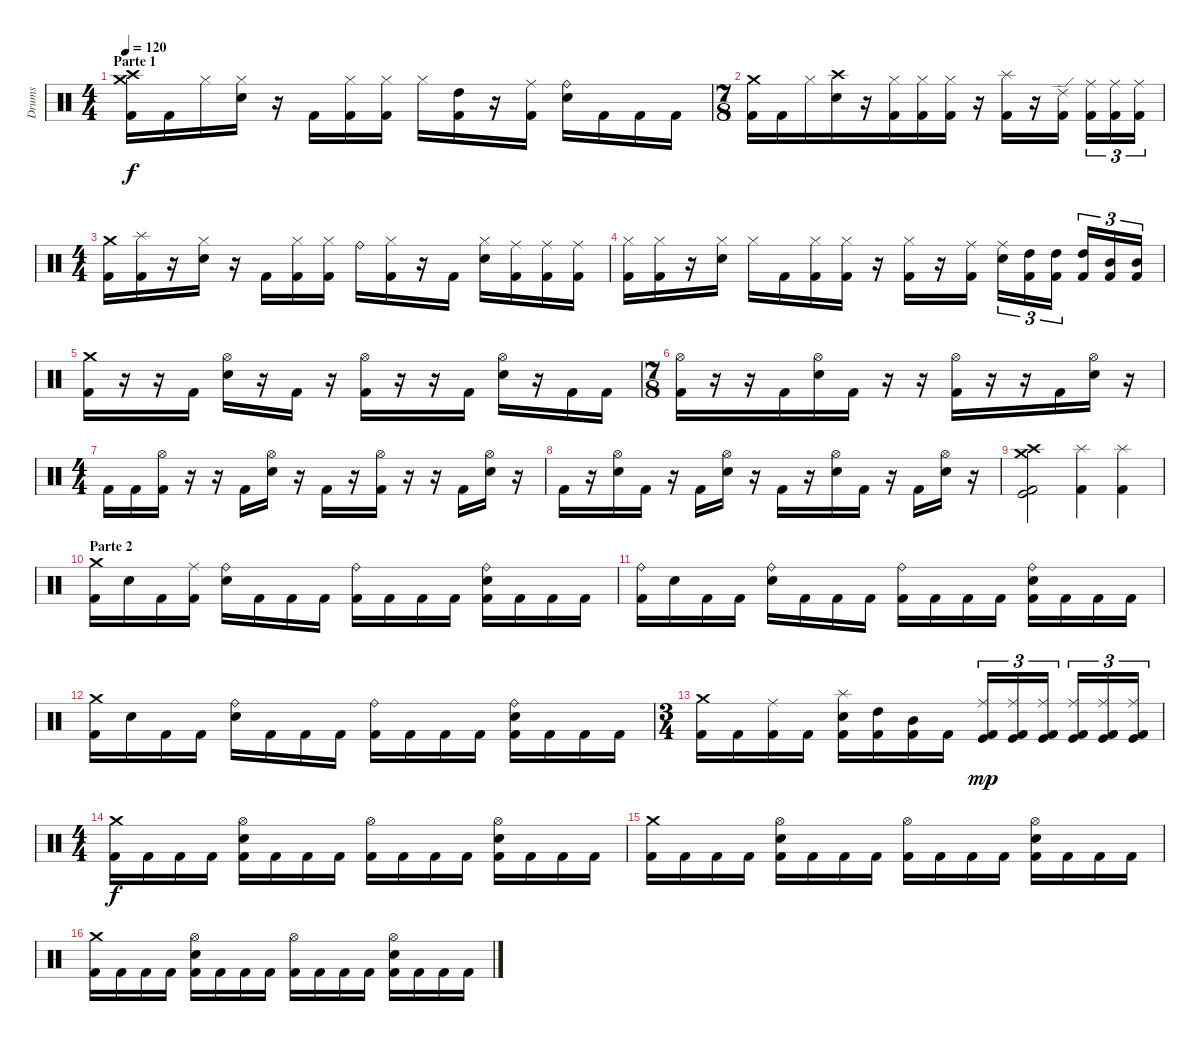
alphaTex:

\track ("Drums" "Drums") {instrument percussion}
\staff {score}
\articulation defaults
\ts (4 4)
\section ("" "Parte 1")
\tempo 120
\clef neutral
\ks c
("Crash medium (hit)" "Crash high (hit)" "Kick (hit) 2").16{dy f} "Kick (hit) 2".16 "Hi-Hat (closed)".16 ("Hi-Hat (closed)" "Electric Snare (hit)").16 r.16 "Kick (hit) 2".16 ("Hi-Hat (closed)" "Kick (hit) 2").16 ("Hi-Hat (closed)" "Kick (hit) 2").16 "Hi-Hat (closed)".16 ("High Tom (hit)" "Kick (hit) 2").16 r.16 ("Ride (middle)" "Kick (hit) 2").16 ("Ride (bell)" "Electric Snare (hit)").16 "Kick (hit) 2".16 "Kick (hit) 2".16 "Kick (hit) 2".16 |
\ts (7 8)
("Crash medium (hit)" "Kick (hit) 2").16 "Kick (hit) 2".16 "Hi-Hat (closed)".16 ("Crash high (hit)" "Electric Snare (hit)").16 r.16 ("Hi-Hat (closed)" "Kick (hit) 2").16 ("Hi-Hat (closed)" "Kick (hit) 2").16 ("Hi-Hat (closed)" "Kick (hit) 2").16 r.16 ("Splash (hit)" "Kick (hit) 2").16 r.16 ("Ride (edge) 2" "Kick (hit) 2").16 ("Ride (middle)" "Kick (hit) 2").16{tu (3 2)} ("Ride (middle)" "Kick (hit) 2").16{tu (3 2)} ("Ride (middle)" "Kick (hit) 2").16{tu (3 2)} |
\ts (4 4)
("Crash medium (hit)" "Kick (hit) 2").16 ("Splash (hit)" "Kick (hit) 2").16 r.16 ("Hi-Hat (closed)" "Electric Snare (hit)").16 r.16 "Kick (hit) 2".16 ("Hi-Hat (closed)" "Kick (hit) 2").16 ("Hi-Hat (closed)" "Kick (hit) 2").16 "Ride (bell)".16 ("Hi-Hat (closed)" "Kick (hit) 2").16 r.16 "Kick (hit) 2".16 ("Hi-Hat (closed)" "Electric Snare (hit)").16 ("Ride (middle)" "Kick (hit) 2").16 ("Ride (middle)" "Kick (hit) 2").16 ("Ride (middle)" "Kick (hit) 2").16 |
("Hi-Hat (closed)" "Kick (hit) 2").16 ("Hi-Hat (closed)" "Kick (hit) 2").16 r.16 ("Hi-Hat (closed)" "Electric Snare (hit)").16 "Hi-Hat (closed)".16 "Kick (hit) 2".16 ("Hi-Hat (closed)" "Kick (hit) 2").16 ("Hi-Hat (closed)" "Kick (hit) 2").16 r.16 ("Hi-Hat (closed)" "Kick (hit) 2").16 r.16 ("Ride (middle)" "Kick (hit) 2").16 ("Ride (middle)" "Electric Snare (hit)").16{tu (3 2)} ("High Tom (hit)" "Kick (hit) 2").16{tu (3 2)} ("High Tom (hit)" "Kick (hit) 2").16{tu (3 2)} ("High Tom (hit)" "Kick (hit) 2").16{tu (3 2)} ("Mid Tom (hit)" "Kick (hit) 2").16{tu (3 2)} ("Mid Tom (hit)" "Kick (hit) 2").16{tu (3 2)} |
("Crash medium (hit)" "Kick (hit) 2").16 r.16 r.16 "Kick (hit) 2".16 ("Hi-Hat (open)" "Electric Snare (hit)").16 r.16 "Kick (hit) 2".16 r.16 ("Hi-Hat (open)" "Kick (hit) 2").16 r.16 r.16 "Kick (hit) 2".16 ("Hi-Hat (open)" "Electric Snare (hit)").16 r.16 "Kick (hit) 2".16 "Kick (hit) 2".16 |
\ts (7 8)
("Hi-Hat (open)" "Kick (hit) 2").16 r.16 r.16 "Kick (hit) 2".16 ("Hi-Hat (open)" "Electric Snare (hit)").16 "Kick (hit) 2".16 r.16 r.16 ("Hi-Hat (open)" "Kick (hit) 2").16 r.16 r.16 "Kick (hit) 2".16 ("Hi-Hat (open)" "Electric Snare (hit)").16 r.16 |
\ts (4 4)
"Kick (hit) 2".16 "Kick (hit) 2".16 ("Hi-Hat (open)" "Kick (hit) 2").16 r.16 r.16 "Kick (hit) 2".16 ("Hi-Hat (open)" "Electric Snare (hit)").16 r.16 "Kick (hit) 2".16 r.16 ("Hi-Hat (open)" "Kick (hit) 2").16 r.16 r.16 "Kick (hit) 2".16 ("Hi-Hat (open)" "Electric Snare (hit)").16 r.16 |
"Kick (hit) 2".16 r.16 ("Hi-Hat (open)" "Electric Snare (hit)").16 "Kick (hit) 2".16 r.16 "Kick (hit) 2".16 ("Hi-Hat (open)" "Electric Snare (hit)").16 r.16 "Kick (hit) 2".16 r.16 ("Hi-Hat (open)" "Electric Snare (hit)").16 "Kick (hit) 2".16 r.16 "Kick (hit) 2".16 ("Hi-Hat (open)" "Electric Snare (hit)").16 r.16 |
("Crash medium (hit)" "Crash high (hit)" "Kick (hit) 2" "Kick (hit)").2 ("Splash (hit)" "Kick (hit) 2").4 ("Splash (hit)" "Kick (hit) 2").4 |
\section ("" "Parte 2")
("Crash medium (hit)" "Kick (hit) 2").16 "Electric Snare (hit)".16 "Kick (hit) 2".16 ("Ride (middle)" "Kick (hit) 2").16 ("Ride (bell)" "Electric Snare (hit)").16 "Kick (hit) 2".16 "Kick (hit) 2".16 "Kick (hit) 2".16 ("Ride (bell)" "Kick (hit) 2").16 "Kick (hit) 2".16 "Kick (hit) 2".16 "Kick (hit) 2".16 ("Ride (bell)" "Electric Snare (hit)" "Kick (hit) 2").16 "Kick (hit) 2".16 "Kick (hit) 2".16 "Kick (hit) 2".16 |
("Ride (bell)" "Kick (hit) 2").16 "Electric Snare (hit)".16 "Kick (hit) 2".16 "Kick (hit) 2".16 ("Ride (bell)" "Electric Snare (hit)").16 "Kick (hit) 2".16 "Kick (hit) 2".16 "Kick (hit) 2".16 ("Ride (bell)" "Kick (hit) 2").16 "Kick (hit) 2".16 "Kick (hit) 2".16 "Kick (hit) 2".16 ("Ride (bell)" "Electric Snare (hit)" "Kick (hit) 2").16 "Kick (hit) 2".16 "Kick (hit) 2".16 "Kick (hit) 2".16 |
("Crash medium (hit)" "Kick (hit) 2").16 "Electric Snare (hit)".16 "Kick (hit) 2".16 "Kick (hit) 2".16 ("Ride (bell)" "Electric Snare (hit)").16 "Kick (hit) 2".16 "Kick (hit) 2".16 "Kick (hit) 2".16 ("Ride (bell)" "Kick (hit) 2").16 "Kick (hit) 2".16 "Kick (hit) 2".16 "Kick (hit) 2".16 ("Ride (bell)" "Electric Snare (hit)" "Kick (hit) 2").16 "Kick (hit) 2".16 "Kick (hit) 2".16 "Kick (hit) 2".16 |
\ts (3 4)
("Crash medium (hit)" "Kick (hit) 2").16 "Kick (hit) 2".16 ("Ride (middle)" "Kick (hit) 2").16 "Kick (hit) 2".16 ("Splash (hit)" "Electric Snare (hit)" "Kick (hit) 2").16 ("High Tom (hit)" "Kick (hit) 2").16 ("Mid Tom (hit)" "Kick (hit) 2").16 "Kick (hit) 2".16 ("Ride (middle)" "Kick (hit) 2" "Kick (hit)").16{tu (3 2) dy mp} ("Ride (middle)" "Kick (hit) 2" "Kick (hit)").16{tu (3 2)} ("Ride (middle)" "Kick (hit) 2" "Kick (hit)").16{tu (3 2)} ("Ride (middle)" "Kick (hit) 2" "Kick (hit)").16{tu (3 2)} ("Ride (middle)" "Kick (hit) 2" "Kick (hit)").16{tu (3 2)} ("Ride (middle)" "Kick (hit) 2" "Kick (hit)").16{tu (3 2)} |
\ts (4 4)
("Crash medium (hit)" "Kick (hit) 2").16{dy f} "Kick (hit) 2".16 "Kick (hit) 2".16 "Kick (hit) 2".16 ("Hi-Hat (open)" "Electric Snare (hit)" "Kick (hit) 2").16 "Kick (hit) 2".16 "Kick (hit) 2".16 "Kick (hit) 2".16 ("Hi-Hat (open)" "Kick (hit) 2").16 "Kick (hit) 2".16 "Kick (hit) 2".16 "Kick (hit) 2".16 ("Hi-Hat (open)" "Electric Snare (hit)" "Kick (hit) 2").16 "Kick (hit) 2".16 "Kick (hit) 2".16 "Kick (hit) 2".16 |
("Crash medium (hit)" "Kick (hit) 2").16 "Kick (hit) 2".16 "Kick (hit) 2".16 "Kick (hit) 2".16 ("Hi-Hat (open)" "Electric Snare (hit)" "Kick (hit) 2").16 "Kick (hit) 2".16 "Kick (hit) 2".16 "Kick (hit) 2".16 ("Hi-Hat (open)" "Kick (hit) 2").16 "Kick (hit) 2".16 "Kick (hit) 2".16 "Kick (hit) 2".16 ("Hi-Hat (open)" "Electric Snare (hit)" "Kick (hit) 2").16 "Kick (hit) 2".16 "Kick (hit) 2".16 "Kick (hit) 2".16 |
("Crash medium (hit)" "Kick (hit) 2").16 "Kick (hit) 2".16 "Kick (hit) 2".16 "Kick (hit) 2".16 ("Hi-Hat (open)" "Electric Snare (hit)" "Kick (hit) 2").16 "Kick (hit) 2".16 "Kick (hit) 2".16 "Kick (hit) 2".16 ("Hi-Hat (open)" "Kick (hit) 2").16 "Kick (hit) 2".16 "Kick (hit) 2".16 "Kick (hit) 2".16 ("Hi-Hat (open)" "Electric Snare (hit)" "Kick (hit) 2").16 "Kick (hit) 2".16 "Kick (hit) 2".16 "Kick (hit) 2".16
